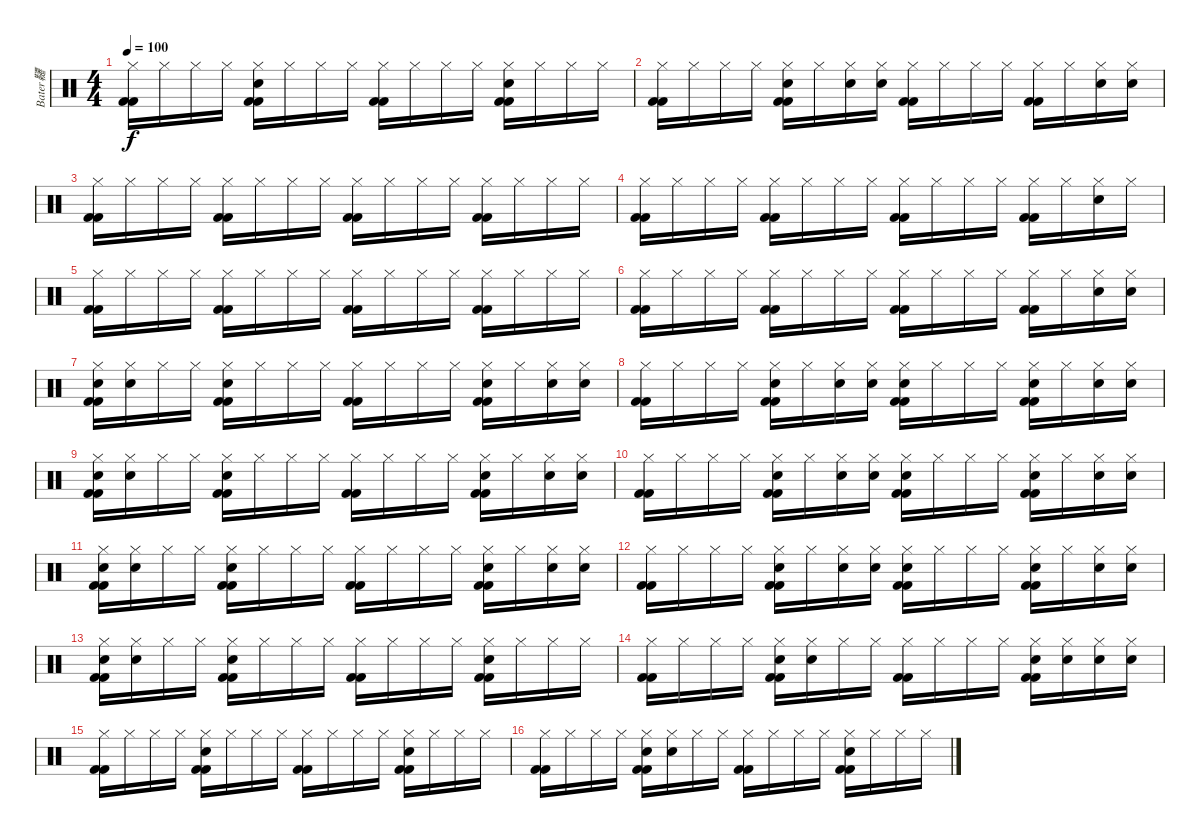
\track ("Bater韆" "Bater韆") {instrument percussion}
\staff {score}
\articulation defaults
\ts (4 4)
\tempo 100
\clef neutral
\ks c
("Kick (hit) 2" "Kick (hit) 2" "Hi-Hat (closed)").16{dy f} "Hi-Hat (closed)".16 "Hi-Hat (closed)".16 "Hi-Hat (closed)".16 ("Kick (hit) 2" "Kick (hit) 2" "Electric Snare (hit)" "Hi-Hat (closed)").16 "Hi-Hat (closed)".16 "Hi-Hat (closed)".16 "Hi-Hat (closed)".16 ("Kick (hit) 2" "Kick (hit) 2" "Hi-Hat (closed)").16 "Hi-Hat (closed)".16 "Hi-Hat (closed)".16 "Hi-Hat (closed)".16 ("Kick (hit) 2" "Kick (hit) 2" "Electric Snare (hit)" "Hi-Hat (closed)").16 "Hi-Hat (closed)".16 "Hi-Hat (closed)".16 "Hi-Hat (closed)".16 |
("Kick (hit) 2" "Kick (hit) 2" "Hi-Hat (closed)").16 "Hi-Hat (closed)".16 "Hi-Hat (closed)".16 "Hi-Hat (closed)".16 ("Kick (hit) 2" "Kick (hit) 2" "Electric Snare (hit)" "Hi-Hat (closed)").16 "Hi-Hat (closed)".16 ("Electric Snare (hit)" "Hi-Hat (closed)").16 ("Electric Snare (hit)" "Hi-Hat (closed)").16 ("Kick (hit) 2" "Kick (hit) 2" "Hi-Hat (closed)").16 "Hi-Hat (closed)".16 "Hi-Hat (closed)".16 "Hi-Hat (closed)".16 ("Kick (hit) 2" "Kick (hit) 2" "Hi-Hat (closed)").16 "Hi-Hat (closed)".16 ("Electric Snare (hit)" "Hi-Hat (closed)").16 ("Electric Snare (hit)" "Hi-Hat (closed)").16 |
("Kick (hit) 2" "Kick (hit) 2" "Hi-Hat (closed)").16 "Hi-Hat (closed)".16 "Hi-Hat (closed)".16 "Hi-Hat (closed)".16 ("Kick (hit) 2" "Kick (hit) 2" "Hi-Hat (closed)").16 "Hi-Hat (closed)".16 "Hi-Hat (closed)".16 "Hi-Hat (closed)".16 ("Kick (hit) 2" "Kick (hit) 2" "Hi-Hat (closed)").16 "Hi-Hat (closed)".16 "Hi-Hat (closed)".16 "Hi-Hat (closed)".16 ("Kick (hit) 2" "Kick (hit) 2" "Hi-Hat (closed)").16 "Hi-Hat (closed)".16 "Hi-Hat (closed)".16 "Hi-Hat (closed)".16 |
("Kick (hit) 2" "Kick (hit) 2" "Hi-Hat (closed)").16 "Hi-Hat (closed)".16 "Hi-Hat (closed)".16 "Hi-Hat (closed)".16 ("Kick (hit) 2" "Kick (hit) 2" "Hi-Hat (closed)").16 "Hi-Hat (closed)".16 "Hi-Hat (closed)".16 "Hi-Hat (closed)".16 ("Kick (hit) 2" "Kick (hit) 2" "Hi-Hat (closed)").16 "Hi-Hat (closed)".16 "Hi-Hat (closed)".16 "Hi-Hat (closed)".16 ("Kick (hit) 2" "Kick (hit) 2" "Hi-Hat (closed)").16 "Hi-Hat (closed)".16 ("Electric Snare (hit)" "Hi-Hat (closed)").16 "Hi-Hat (closed)".16 |
("Kick (hit) 2" "Kick (hit) 2" "Hi-Hat (closed)").16 "Hi-Hat (closed)".16 "Hi-Hat (closed)".16 "Hi-Hat (closed)".16 ("Kick (hit) 2" "Kick (hit) 2" "Hi-Hat (closed)").16 "Hi-Hat (closed)".16 "Hi-Hat (closed)".16 "Hi-Hat (closed)".16 ("Kick (hit) 2" "Kick (hit) 2" "Hi-Hat (closed)").16 "Hi-Hat (closed)".16 "Hi-Hat (closed)".16 "Hi-Hat (closed)".16 ("Kick (hit) 2" "Kick (hit) 2" "Hi-Hat (closed)").16 "Hi-Hat (closed)".16 "Hi-Hat (closed)".16 "Hi-Hat (closed)".16 |
("Kick (hit) 2" "Kick (hit) 2" "Hi-Hat (closed)").16 "Hi-Hat (closed)".16 "Hi-Hat (closed)".16 "Hi-Hat (closed)".16 ("Kick (hit) 2" "Kick (hit) 2" "Hi-Hat (closed)").16 "Hi-Hat (closed)".16 "Hi-Hat (closed)".16 "Hi-Hat (closed)".16 ("Kick (hit) 2" "Kick (hit) 2" "Hi-Hat (closed)").16 "Hi-Hat (closed)".16 "Hi-Hat (closed)".16 "Hi-Hat (closed)".16 ("Kick (hit) 2" "Kick (hit) 2" "Hi-Hat (closed)").16 "Hi-Hat (closed)".16 ("Electric Snare (hit)" "Hi-Hat (closed)").16 ("Electric Snare (hit)" "Hi-Hat (closed)").16 |
("Kick (hit) 2" "Kick (hit) 2" "Electric Snare (hit)" "Hi-Hat (closed)").16 ("Electric Snare (hit)" "Hi-Hat (closed)").16 "Hi-Hat (closed)".16 "Hi-Hat (closed)".16 ("Kick (hit) 2" "Kick (hit) 2" "Electric Snare (hit)" "Hi-Hat (closed)").16 "Hi-Hat (closed)".16 "Hi-Hat (closed)".16 "Hi-Hat (closed)".16 ("Kick (hit) 2" "Kick (hit) 2" "Hi-Hat (closed)").16 "Hi-Hat (closed)".16 "Hi-Hat (closed)".16 "Hi-Hat (closed)".16 ("Kick (hit) 2" "Kick (hit) 2" "Electric Snare (hit)" "Hi-Hat (closed)").16 "Hi-Hat (closed)".16 ("Electric Snare (hit)" "Hi-Hat (closed)").16 ("Electric Snare (hit)" "Hi-Hat (closed)").16 |
("Kick (hit) 2" "Kick (hit) 2" "Hi-Hat (closed)").16 "Hi-Hat (closed)".16 "Hi-Hat (closed)".16 "Hi-Hat (closed)".16 ("Kick (hit) 2" "Kick (hit) 2" "Electric Snare (hit)" "Hi-Hat (closed)").16 "Hi-Hat (closed)".16 ("Electric Snare (hit)" "Hi-Hat (closed)").16 ("Electric Snare (hit)" "Hi-Hat (closed)").16 ("Kick (hit) 2" "Kick (hit) 2" "Electric Snare (hit)" "Hi-Hat (closed)").16 "Hi-Hat (closed)".16 "Hi-Hat (closed)".16 "Hi-Hat (closed)".16 ("Kick (hit) 2" "Kick (hit) 2" "Electric Snare (hit)" "Hi-Hat (closed)").16 "Hi-Hat (closed)".16 ("Electric Snare (hit)" "Hi-Hat (closed)").16 ("Electric Snare (hit)" "Hi-Hat (closed)").16 |
("Kick (hit) 2" "Kick (hit) 2" "Electric Snare (hit)" "Hi-Hat (closed)").16 ("Electric Snare (hit)" "Hi-Hat (closed)").16 "Hi-Hat (closed)".16 "Hi-Hat (closed)".16 ("Kick (hit) 2" "Kick (hit) 2" "Electric Snare (hit)" "Hi-Hat (closed)").16 "Hi-Hat (closed)".16 "Hi-Hat (closed)".16 "Hi-Hat (closed)".16 ("Kick (hit) 2" "Kick (hit) 2" "Hi-Hat (closed)").16 "Hi-Hat (closed)".16 "Hi-Hat (closed)".16 "Hi-Hat (closed)".16 ("Kick (hit) 2" "Kick (hit) 2" "Electric Snare (hit)" "Hi-Hat (closed)").16 "Hi-Hat (closed)".16 ("Electric Snare (hit)" "Hi-Hat (closed)").16 ("Electric Snare (hit)" "Hi-Hat (closed)").16 |
("Kick (hit) 2" "Kick (hit) 2" "Hi-Hat (closed)").16 "Hi-Hat (closed)".16 "Hi-Hat (closed)".16 "Hi-Hat (closed)".16 ("Kick (hit) 2" "Kick (hit) 2" "Electric Snare (hit)" "Hi-Hat (closed)").16 "Hi-Hat (closed)".16 ("Electric Snare (hit)" "Hi-Hat (closed)").16 ("Electric Snare (hit)" "Hi-Hat (closed)").16 ("Kick (hit) 2" "Kick (hit) 2" "Electric Snare (hit)" "Hi-Hat (closed)").16 "Hi-Hat (closed)".16 "Hi-Hat (closed)".16 "Hi-Hat (closed)".16 ("Kick (hit) 2" "Kick (hit) 2" "Electric Snare (hit)" "Hi-Hat (closed)").16 "Hi-Hat (closed)".16 ("Electric Snare (hit)" "Hi-Hat (closed)").16 ("Electric Snare (hit)" "Hi-Hat (closed)").16 |
("Kick (hit) 2" "Kick (hit) 2" "Electric Snare (hit)" "Hi-Hat (closed)").16 ("Electric Snare (hit)" "Hi-Hat (closed)").16 "Hi-Hat (closed)".16 "Hi-Hat (closed)".16 ("Kick (hit) 2" "Kick (hit) 2" "Electric Snare (hit)" "Hi-Hat (closed)").16 "Hi-Hat (closed)".16 "Hi-Hat (closed)".16 "Hi-Hat (closed)".16 ("Kick (hit) 2" "Kick (hit) 2" "Hi-Hat (closed)").16 "Hi-Hat (closed)".16 "Hi-Hat (closed)".16 "Hi-Hat (closed)".16 ("Kick (hit) 2" "Kick (hit) 2" "Electric Snare (hit)" "Hi-Hat (closed)").16 "Hi-Hat (closed)".16 ("Electric Snare (hit)" "Hi-Hat (closed)").16 ("Electric Snare (hit)" "Hi-Hat (closed)").16 |
("Kick (hit) 2" "Kick (hit) 2" "Hi-Hat (closed)").16 "Hi-Hat (closed)".16 "Hi-Hat (closed)".16 "Hi-Hat (closed)".16 ("Kick (hit) 2" "Kick (hit) 2" "Electric Snare (hit)" "Hi-Hat (closed)").16 "Hi-Hat (closed)".16 ("Electric Snare (hit)" "Hi-Hat (closed)").16 ("Electric Snare (hit)" "Hi-Hat (closed)").16 ("Kick (hit) 2" "Kick (hit) 2" "Electric Snare (hit)" "Hi-Hat (closed)").16 "Hi-Hat (closed)".16 "Hi-Hat (closed)".16 "Hi-Hat (closed)".16 ("Kick (hit) 2" "Kick (hit) 2" "Electric Snare (hit)" "Hi-Hat (closed)").16 "Hi-Hat (closed)".16 ("Electric Snare (hit)" "Hi-Hat (closed)").16 ("Electric Snare (hit)" "Hi-Hat (closed)").16 |
("Kick (hit) 2" "Kick (hit) 2" "Electric Snare (hit)" "Hi-Hat (closed)").16 ("Electric Snare (hit)" "Hi-Hat (closed)").16 "Hi-Hat (closed)".16 "Hi-Hat (closed)".16 ("Kick (hit) 2" "Kick (hit) 2" "Electric Snare (hit)" "Hi-Hat (closed)").16 "Hi-Hat (closed)".16 "Hi-Hat (closed)".16 "Hi-Hat (closed)".16 ("Kick (hit) 2" "Kick (hit) 2" "Hi-Hat (closed)").16 "Hi-Hat (closed)".16 "Hi-Hat (closed)".16 "Hi-Hat (closed)".16 ("Kick (hit) 2" "Kick (hit) 2" "Electric Snare (hit)" "Hi-Hat (closed)").16 "Hi-Hat (closed)".16 "Hi-Hat (closed)".16 "Hi-Hat (closed)".16 |
("Kick (hit) 2" "Kick (hit) 2" "Hi-Hat (closed)").16 "Hi-Hat (closed)".16 "Hi-Hat (closed)".16 "Hi-Hat (closed)".16 ("Kick (hit) 2" "Kick (hit) 2" "Electric Snare (hit)" "Hi-Hat (closed)").16 ("Electric Snare (hit)" "Hi-Hat (closed)").16 "Hi-Hat (closed)".16 "Hi-Hat (closed)".16 ("Kick (hit) 2" "Kick (hit) 2" "Hi-Hat (closed)").16 "Hi-Hat (closed)".16 "Hi-Hat (closed)".16 "Hi-Hat (closed)".16 ("Kick (hit) 2" "Kick (hit) 2" "Electric Snare (hit)" "Hi-Hat (closed)").16 ("Electric Snare (hit)" "Hi-Hat (closed)").16 ("Electric Snare (hit)" "Hi-Hat (closed)").16 ("Electric Snare (hit)" "Hi-Hat (closed)").16 |
("Kick (hit) 2" "Kick (hit) 2" "Hi-Hat (closed)").16 "Hi-Hat (closed)".16 "Hi-Hat (closed)".16 "Hi-Hat (closed)".16 ("Kick (hit) 2" "Kick (hit) 2" "Electric Snare (hit)" "Hi-Hat (closed)").16 "Hi-Hat (closed)".16 "Hi-Hat (closed)".16 "Hi-Hat (closed)".16 ("Kick (hit) 2" "Kick (hit) 2" "Hi-Hat (closed)").16 "Hi-Hat (closed)".16 "Hi-Hat (closed)".16 "Hi-Hat (closed)".16 ("Kick (hit) 2" "Kick (hit) 2" "Electric Snare (hit)" "Hi-Hat (closed)").16 "Hi-Hat (closed)".16 "Hi-Hat (closed)".16 "Hi-Hat (closed)".16 |
("Kick (hit) 2" "Kick (hit) 2" "Hi-Hat (closed)").16 "Hi-Hat (closed)".16 "Hi-Hat (closed)".16 "Hi-Hat (closed)".16 ("Kick (hit) 2" "Kick (hit) 2" "Electric Snare (hit)" "Hi-Hat (closed)").16 ("Electric Snare (hit)" "Hi-Hat (closed)").16 "Hi-Hat (closed)".16 "Hi-Hat (closed)".16 ("Kick (hit) 2" "Kick (hit) 2" "Hi-Hat (closed)").16 "Hi-Hat (closed)".16 "Hi-Hat (closed)".16 "Hi-Hat (closed)".16 ("Kick (hit) 2" "Kick (hit) 2" "Electric Snare (hit)" "Hi-Hat (closed)").16 "Hi-Hat (closed)".16 "Hi-Hat (closed)".16 "Hi-Hat (closed)".16
